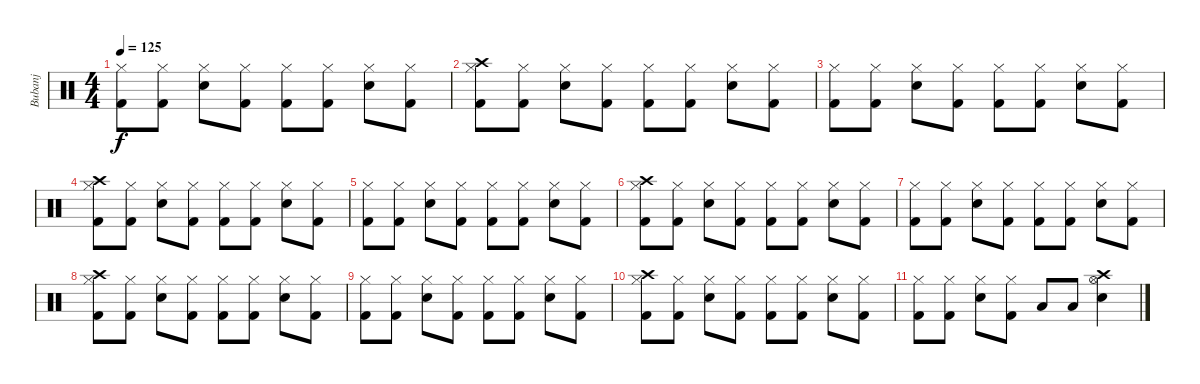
\track ("Bubanj" "Bubanj") {instrument percussion}
\staff {score}
\articulation defaults
\ts (4 4)
\tempo 125
\clef neutral
\ks c
("Hi-Hat (closed)" "Kick (hit) 2").8{dy f} ("Hi-Hat (closed)" "Kick (hit) 2").8 ("Electric Snare (hit)" "Hi-Hat (closed)").8 ("Hi-Hat (closed)" "Kick (hit) 2").8 ("Hi-Hat (closed)" "Kick (hit) 2").8 ("Hi-Hat (closed)" "Kick (hit) 2").8 ("Electric Snare (hit)" "Hi-Hat (closed)").8 ("Hi-Hat (closed)" "Kick (hit) 2").8 |
("Crash high (hit)" "Hi-Hat (closed)" "Kick (hit) 2").8 ("Hi-Hat (closed)" "Kick (hit) 2").8 ("Electric Snare (hit)" "Hi-Hat (closed)").8 ("Hi-Hat (closed)" "Kick (hit) 2").8 ("Hi-Hat (closed)" "Kick (hit) 2").8 ("Hi-Hat (closed)" "Kick (hit) 2").8 ("Electric Snare (hit)" "Hi-Hat (closed)").8 ("Hi-Hat (closed)" "Kick (hit) 2").8 |
("Hi-Hat (closed)" "Kick (hit) 2").8 ("Hi-Hat (closed)" "Kick (hit) 2").8 ("Electric Snare (hit)" "Hi-Hat (closed)").8 ("Hi-Hat (closed)" "Kick (hit) 2").8 ("Hi-Hat (closed)" "Kick (hit) 2").8 ("Hi-Hat (closed)" "Kick (hit) 2").8 ("Electric Snare (hit)" "Hi-Hat (closed)").8 ("Hi-Hat (closed)" "Kick (hit) 2").8 |
("Crash high (hit)" "Hi-Hat (closed)" "Kick (hit) 2").8 ("Hi-Hat (closed)" "Kick (hit) 2").8 ("Electric Snare (hit)" "Hi-Hat (closed)").8 ("Hi-Hat (closed)" "Kick (hit) 2").8 ("Hi-Hat (closed)" "Kick (hit) 2").8 ("Hi-Hat (closed)" "Kick (hit) 2").8 ("Electric Snare (hit)" "Hi-Hat (closed)").8 ("Hi-Hat (closed)" "Kick (hit) 2").8 |
("Hi-Hat (closed)" "Kick (hit) 2").8 ("Hi-Hat (closed)" "Kick (hit) 2").8 ("Electric Snare (hit)" "Hi-Hat (closed)").8 ("Hi-Hat (closed)" "Kick (hit) 2").8 ("Hi-Hat (closed)" "Kick (hit) 2").8 ("Hi-Hat (closed)" "Kick (hit) 2").8 ("Electric Snare (hit)" "Hi-Hat (closed)").8 ("Hi-Hat (closed)" "Kick (hit) 2").8 |
("Crash high (hit)" "Hi-Hat (closed)" "Kick (hit) 2").8 ("Hi-Hat (closed)" "Kick (hit) 2").8 ("Electric Snare (hit)" "Hi-Hat (closed)").8 ("Hi-Hat (closed)" "Kick (hit) 2").8 ("Hi-Hat (closed)" "Kick (hit) 2").8 ("Hi-Hat (closed)" "Kick (hit) 2").8 ("Electric Snare (hit)" "Hi-Hat (closed)").8 ("Hi-Hat (closed)" "Kick (hit) 2").8 |
("Hi-Hat (closed)" "Kick (hit) 2").8 ("Hi-Hat (closed)" "Kick (hit) 2").8 ("Electric Snare (hit)" "Hi-Hat (closed)").8 ("Hi-Hat (closed)" "Kick (hit) 2").8 ("Hi-Hat (closed)" "Kick (hit) 2").8 ("Hi-Hat (closed)" "Kick (hit) 2").8 ("Electric Snare (hit)" "Hi-Hat (closed)").8 ("Hi-Hat (closed)" "Kick (hit) 2").8 |
("Crash high (hit)" "Hi-Hat (closed)" "Kick (hit) 2").8 ("Hi-Hat (closed)" "Kick (hit) 2").8 ("Electric Snare (hit)" "Hi-Hat (closed)").8 ("Hi-Hat (closed)" "Kick (hit) 2").8 ("Hi-Hat (closed)" "Kick (hit) 2").8 ("Hi-Hat (closed)" "Kick (hit) 2").8 ("Electric Snare (hit)" "Hi-Hat (closed)").8 ("Hi-Hat (closed)" "Kick (hit) 2").8 |
("Hi-Hat (closed)" "Kick (hit) 2").8 ("Hi-Hat (closed)" "Kick (hit) 2").8 ("Electric Snare (hit)" "Hi-Hat (closed)").8 ("Hi-Hat (closed)" "Kick (hit) 2").8 ("Hi-Hat (closed)" "Kick (hit) 2").8 ("Hi-Hat (closed)" "Kick (hit) 2").8 ("Electric Snare (hit)" "Hi-Hat (closed)").8 ("Hi-Hat (closed)" "Kick (hit) 2").8 |
("Crash high (hit)" "Hi-Hat (closed)" "Kick (hit) 2").8 ("Hi-Hat (closed)" "Kick (hit) 2").8 ("Electric Snare (hit)" "Hi-Hat (closed)").8 ("Hi-Hat (closed)" "Kick (hit) 2").8 ("Hi-Hat (closed)" "Kick (hit) 2").8 ("Hi-Hat (closed)" "Kick (hit) 2").8 ("Electric Snare (hit)" "Hi-Hat (closed)").8 ("Hi-Hat (closed)" "Kick (hit) 2").8 |
("Hi-Hat (closed)" "Kick (hit) 2").8 ("Hi-Hat (closed)" "Kick (hit) 2").8 ("Electric Snare (hit)" "Hi-Hat (closed)").8 ("Hi-Hat (closed)" "Kick (hit) 2").8 "Low Tom (hit)".8 "Low Floor Tom (hit)".8 ("Crash high (hit)" "Hi-Hat (open)" "Electric Snare (hit)").4
